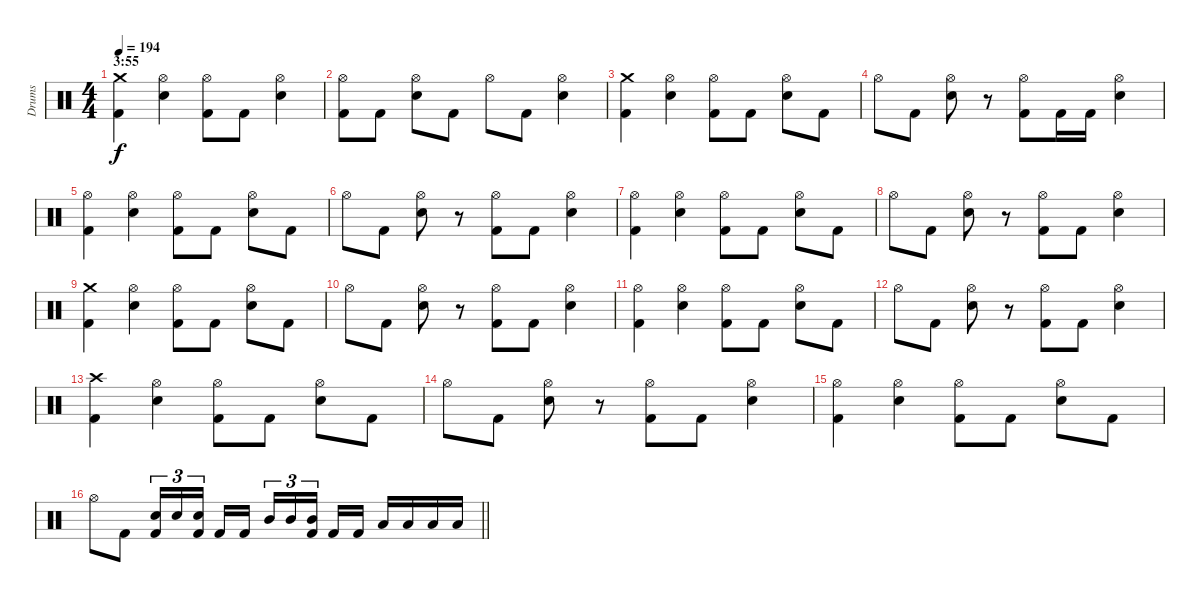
\track ("Drums" "Drums") {instrument percussion}
\staff {score}
\articulation defaults
\ts (4 4)
\section ("" "3:55")
\tempo 194
\clef neutral
\ks c
("Crash medium (hit)" "Kick (hit) 2").4{dy f} ("Hi-Hat (open)" "Snare (hit) 2").4 ("Hi-Hat (open)" "Kick (hit) 2").8 "Kick (hit) 2".8 ("Hi-Hat (open)" "Snare (hit) 2").4 |
("Hi-Hat (open)" "Kick (hit) 2").8 "Kick (hit) 2".8 ("Hi-Hat (open)" "Snare (hit) 2").8 "Kick (hit) 2".8 "Hi-Hat (open)".8 "Kick (hit) 2".8 ("Hi-Hat (open)" "Snare (hit) 2").4 |
("Crash medium (hit)" "Kick (hit) 2").4 ("Hi-Hat (open)" "Snare (hit) 2").4 ("Hi-Hat (open)" "Kick (hit) 2").8 "Kick (hit) 2".8 ("Hi-Hat (open)" "Snare (hit) 2").8 "Kick (hit) 2".8 |
"Hi-Hat (open)".8 "Kick (hit) 2".8 ("Hi-Hat (open)" "Snare (hit) 2").8 r.8 ("Hi-Hat (open)" "Kick (hit) 2").8 "Kick (hit) 2".16 "Kick (hit) 2".16 ("Hi-Hat (open)" "Snare (hit) 2").4 |
("Hi-Hat (open)" "Kick (hit) 2").4 ("Hi-Hat (open)" "Snare (hit) 2").4 ("Hi-Hat (open)" "Kick (hit) 2").8 "Kick (hit) 2".8 ("Hi-Hat (open)" "Snare (hit) 2").8 "Kick (hit) 2".8 |
"Hi-Hat (open)".8 "Kick (hit) 2".8 ("Hi-Hat (open)" "Snare (hit) 2").8 r.8 ("Hi-Hat (open)" "Kick (hit) 2").8 "Kick (hit) 2".8 ("Hi-Hat (open)" "Snare (hit) 2").4 |
("Hi-Hat (open)" "Kick (hit) 2").4 ("Hi-Hat (open)" "Snare (hit) 2").4 ("Hi-Hat (open)" "Kick (hit) 2").8 "Kick (hit) 2".8 ("Hi-Hat (open)" "Snare (hit) 2").8 "Kick (hit) 2".8 |
"Hi-Hat (open)".8 "Kick (hit) 2".8 ("Hi-Hat (open)" "Snare (hit) 2").8 r.8 ("Hi-Hat (open)" "Kick (hit) 2").8 "Kick (hit) 2".8 ("Hi-Hat (open)" "Snare (hit) 2").4 |
("Crash medium (hit)" "Kick (hit) 2").4 ("Hi-Hat (open)" "Snare (hit) 2").4 ("Hi-Hat (open)" "Kick (hit) 2").8 "Kick (hit) 2".8 ("Hi-Hat (open)" "Snare (hit) 2").8 "Kick (hit) 2".8 |
"Hi-Hat (open)".8 "Kick (hit) 2".8 ("Hi-Hat (open)" "Snare (hit) 2").8 r.8 ("Hi-Hat (open)" "Kick (hit) 2").8 "Kick (hit) 2".8 ("Hi-Hat (open)" "Snare (hit) 2").4 |
("Hi-Hat (open)" "Kick (hit) 2").4 ("Hi-Hat (open)" "Snare (hit) 2").4 ("Hi-Hat (open)" "Kick (hit) 2").8 "Kick (hit) 2".8 ("Hi-Hat (open)" "Snare (hit) 2").8 "Kick (hit) 2".8 |
"Hi-Hat (open)".8 "Kick (hit) 2".8 ("Hi-Hat (open)" "Snare (hit) 2").8 r.8 ("Hi-Hat (open)" "Kick (hit) 2").8 "Kick (hit) 2".8 ("Hi-Hat (open)" "Snare (hit) 2").4 |
("Crash high (hit)" "Kick (hit) 2").4 ("Hi-Hat (open)" "Snare (hit) 2").4 ("Hi-Hat (open)" "Kick (hit) 2").8 "Kick (hit) 2".8 ("Hi-Hat (open)" "Snare (hit) 2").8 "Kick (hit) 2".8 |
"Hi-Hat (open)".8 "Kick (hit) 2".8 ("Hi-Hat (open)" "Snare (hit) 2").8 r.8 ("Hi-Hat (open)" "Kick (hit) 2").8 "Kick (hit) 2".8 ("Hi-Hat (open)" "Snare (hit) 2").4 |
("Hi-Hat (open)" "Kick (hit) 2").4 ("Hi-Hat (open)" "Snare (hit) 2").4 ("Hi-Hat (open)" "Kick (hit) 2").8 "Kick (hit) 2".8 ("Hi-Hat (open)" "Snare (hit) 2").8 "Kick (hit) 2".8 |
\barLineRight lightlight "Hi-Hat (open)".8 "Kick (hit) 2".8
("Snare (hit) 2" "Kick (hit) 2").16{tu (3 2)} "Snare (hit) 2".16{tu (3 2)} ("Snare (hit) 2" "Kick (hit) 2").16{tu (3 2) beam splitsecondary} "Kick (hit) 2".16 "Kick (hit) 2".16 "Mid Tom (hit)".16{tu (3 2)} "Mid Tom (hit)".16{tu (3 2)} ("Mid Tom (hit)" "Kick (hit) 2").16{tu (3 2) beam splitsecondary} "Kick (hit) 2".16 "Kick (hit) 2".16 "Low Tom (hit)".16 "Low Tom (hit)".16 "Low Tom (hit)".16 "Low Tom (hit)".16
